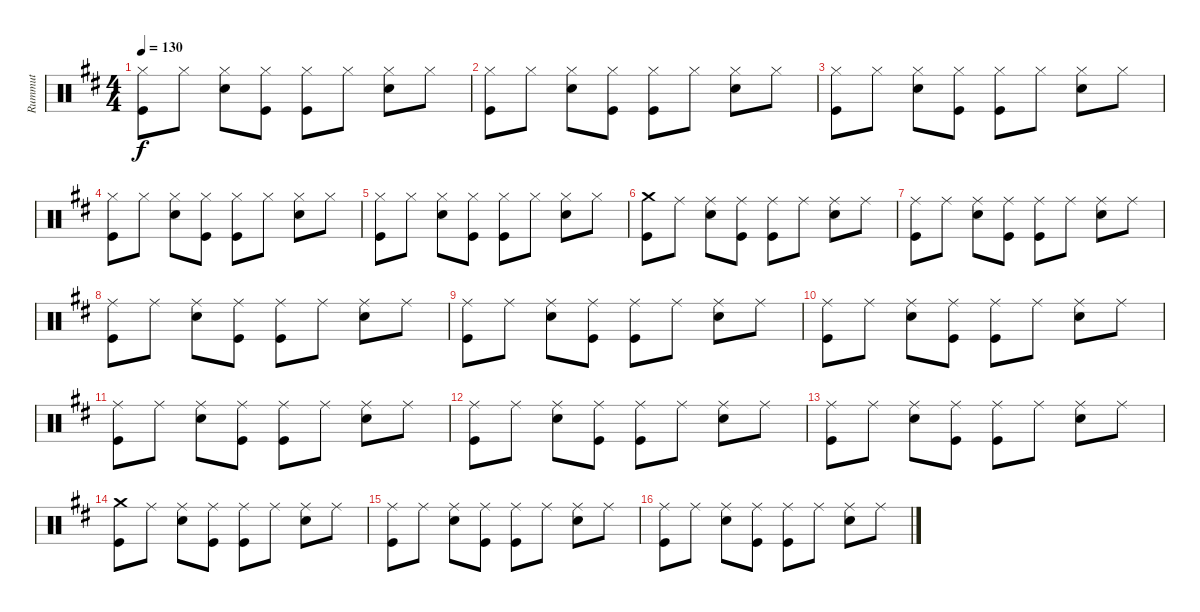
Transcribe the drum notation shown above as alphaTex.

\track ("Rummut" "Rummut") {instrument percussion}
\staff {score}
\articulation defaults
\ts (4 4)
\tempo 130
\clef neutral
\ks d
("Hi-Hat (closed)" "Kick (hit)").8{dy f} "Hi-Hat (closed)".8 ("Hi-Hat (closed)" "Electric Snare (hit)").8 ("Hi-Hat (closed)" "Kick (hit)").8 ("Hi-Hat (closed)" "Kick (hit)").8 "Hi-Hat (closed)".8 ("Hi-Hat (closed)" "Electric Snare (hit)").8 "Hi-Hat (closed)".8 |
("Hi-Hat (closed)" "Kick (hit)").8 "Hi-Hat (closed)".8 ("Hi-Hat (closed)" "Electric Snare (hit)").8 ("Hi-Hat (closed)" "Kick (hit)").8 ("Hi-Hat (closed)" "Kick (hit)").8 "Hi-Hat (closed)".8 ("Hi-Hat (closed)" "Electric Snare (hit)").8 "Hi-Hat (closed)".8 |
("Hi-Hat (closed)" "Kick (hit)").8 "Hi-Hat (closed)".8 ("Hi-Hat (closed)" "Electric Snare (hit)").8 ("Hi-Hat (closed)" "Kick (hit)").8 ("Hi-Hat (closed)" "Kick (hit)").8 "Hi-Hat (closed)".8 ("Hi-Hat (closed)" "Electric Snare (hit)").8 "Hi-Hat (closed)".8 |
("Hi-Hat (closed)" "Kick (hit)").8 "Hi-Hat (closed)".8 ("Hi-Hat (closed)" "Electric Snare (hit)").8 ("Hi-Hat (closed)" "Kick (hit)").8 ("Hi-Hat (closed)" "Kick (hit)").8 "Hi-Hat (closed)".8 ("Hi-Hat (closed)" "Electric Snare (hit)").8 "Hi-Hat (closed)".8 |
("Hi-Hat (closed)" "Kick (hit)").8 "Hi-Hat (closed)".8 ("Hi-Hat (closed)" "Electric Snare (hit)").8 ("Hi-Hat (closed)" "Kick (hit)").8 ("Hi-Hat (closed)" "Kick (hit)").8 "Hi-Hat (closed)".8 ("Hi-Hat (closed)" "Electric Snare (hit)").8 "Hi-Hat (closed)".8 |
("Crash medium (hit)" "Kick (hit)").8 "Ride (middle)".8 ("Ride (middle)" "Electric Snare (hit)").8 ("Ride (middle)" "Kick (hit)").8 ("Ride (middle)" "Kick (hit)").8 "Ride (middle)".8 ("Ride (middle)" "Electric Snare (hit)").8 "Ride (middle)".8 |
("Ride (middle)" "Kick (hit)").8 "Ride (middle)".8 ("Ride (middle)" "Electric Snare (hit)").8 ("Ride (middle)" "Kick (hit)").8 ("Ride (middle)" "Kick (hit)").8 "Ride (middle)".8 ("Ride (middle)" "Electric Snare (hit)").8 "Ride (middle)".8 |
("Ride (middle)" "Kick (hit)").8 "Ride (middle)".8 ("Ride (middle)" "Electric Snare (hit)").8 ("Ride (middle)" "Kick (hit)").8 ("Ride (middle)" "Kick (hit)").8 "Ride (middle)".8 ("Ride (middle)" "Electric Snare (hit)").8 "Ride (middle)".8 |
("Ride (middle)" "Kick (hit)").8 "Ride (middle)".8 ("Ride (middle)" "Electric Snare (hit)").8 ("Ride (middle)" "Kick (hit)").8 ("Ride (middle)" "Kick (hit)").8 "Ride (middle)".8 ("Ride (middle)" "Electric Snare (hit)").8 "Ride (middle)".8 |
("Ride (middle)" "Kick (hit)").8 "Ride (middle)".8 ("Ride (middle)" "Electric Snare (hit)").8 ("Ride (middle)" "Kick (hit)").8 ("Ride (middle)" "Kick (hit)").8 "Ride (middle)".8 ("Ride (middle)" "Electric Snare (hit)").8 "Ride (middle)".8 |
("Ride (middle)" "Kick (hit)").8 "Ride (middle)".8 ("Ride (middle)" "Electric Snare (hit)").8 ("Ride (middle)" "Kick (hit)").8 ("Ride (middle)" "Kick (hit)").8 "Ride (middle)".8 ("Ride (middle)" "Electric Snare (hit)").8 "Ride (middle)".8 |
("Ride (middle)" "Kick (hit)").8 "Ride (middle)".8 ("Ride (middle)" "Electric Snare (hit)").8 ("Ride (middle)" "Kick (hit)").8 ("Ride (middle)" "Kick (hit)").8 "Ride (middle)".8 ("Ride (middle)" "Electric Snare (hit)").8 "Ride (middle)".8 |
("Ride (middle)" "Kick (hit)").8 "Ride (middle)".8 ("Ride (middle)" "Electric Snare (hit)").8 ("Ride (middle)" "Kick (hit)").8 ("Ride (middle)" "Kick (hit)").8 "Ride (middle)".8 ("Ride (middle)" "Electric Snare (hit)").8 "Ride (middle)".8 |
("Crash medium (hit)" "Kick (hit)").8 "Ride (middle)".8 ("Ride (middle)" "Electric Snare (hit)").8 ("Ride (middle)" "Kick (hit)").8 ("Ride (middle)" "Kick (hit)").8 "Ride (middle)".8 ("Ride (middle)" "Electric Snare (hit)").8 "Ride (middle)".8 |
("Ride (middle)" "Kick (hit)").8 "Ride (middle)".8 ("Ride (middle)" "Electric Snare (hit)").8 ("Ride (middle)" "Kick (hit)").8 ("Ride (middle)" "Kick (hit)").8 "Ride (middle)".8 ("Ride (middle)" "Electric Snare (hit)").8 "Ride (middle)".8 |
("Ride (middle)" "Kick (hit)").8 "Ride (middle)".8 ("Ride (middle)" "Electric Snare (hit)").8 ("Ride (middle)" "Kick (hit)").8 ("Ride (middle)" "Kick (hit)").8 "Ride (middle)".8 ("Ride (middle)" "Electric Snare (hit)").8 "Ride (middle)".8
